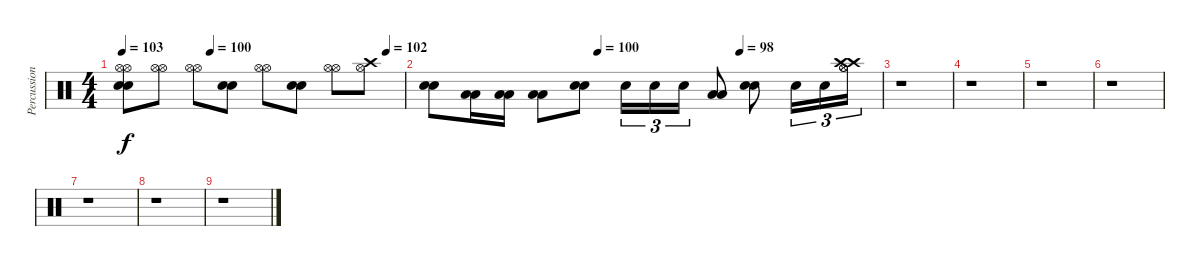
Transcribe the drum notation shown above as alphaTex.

\track ("Percussion" "Percussion") {instrument percussion}
\staff {score}
\articulation defaults
\ts (4 4)
\tempo 103
\tempo (100 0.3125)
\tempo (102 0.9375)
\clef neutral
\ks c
("Electric Snare (hit)" "Electric Snare (hit)" "Hi-Hat (open)" "Hi-Hat (open)").8{dy f} ("Hi-Hat (open)" "Hi-Hat (open)").8 ("Hi-Hat (open)" "Hi-Hat (open)").8 ("Electric Snare (hit)" "Electric Snare (hit)").8 ("Hi-Hat (open)" "Hi-Hat (open)").8 ("Electric Snare (hit)" "Electric Snare (hit)").8 ("Hi-Hat (open)" "Hi-Hat (open)").8 ("Hi-Hat (open)" "Crash high (hit)").8 |
\tempo (100 0.375)
\tempo (98 0.6875)
("Electric Snare (hit)" "Electric Snare (hit)").8 ("Low Tom (hit)" "Low Tom (hit)").16 ("Low Tom (hit)" "Low Tom (hit)").16 ("Low Tom (hit)" "Low Tom (hit)").8 ("Electric Snare (hit)" "Electric Snare (hit)").8 "Electric Snare (hit)".16{tu (3 2)} "Electric Snare (hit)".16{tu (3 2)} "Electric Snare (hit)".16{tu (3 2)} ("Low Tom (hit)" "Low Tom (hit)").8 ("Electric Snare (hit)" "Electric Snare (hit)").8 "Electric Snare (hit)".16{tu (3 2)} "Electric Snare (hit)".16{tu (3 2)} ("Hi-Hat (open)" "Hi-Hat (open)" "Crash high (hit)" "Crash high (hit)").16{tu (3 2)} |
r.1 |
r.1 |
r.1 |
r.1 |
r.1 |
r.1 |
r.1
